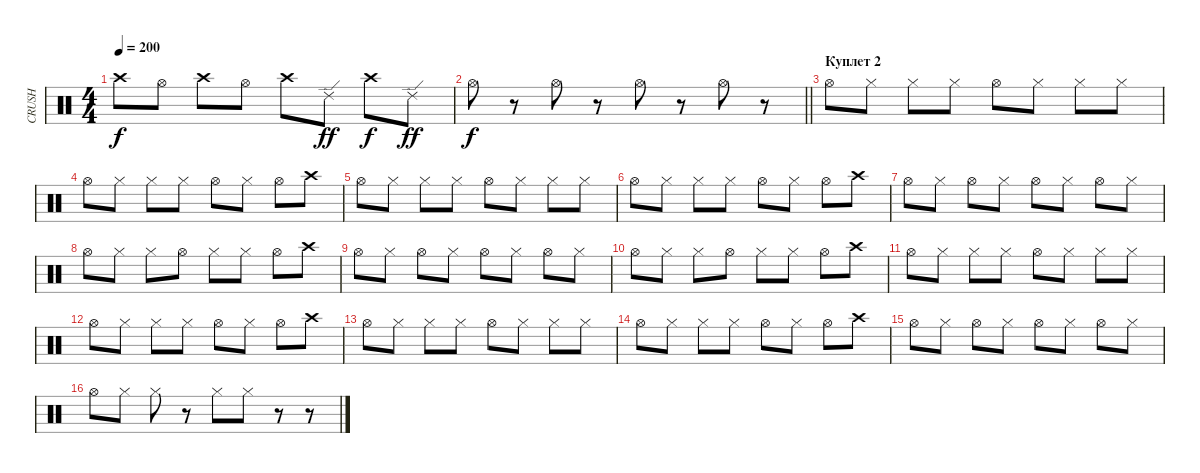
\track ("CRUSH" "CRUSH") {instrument percussion}
\staff {score}
\articulation defaults
\ts (4 4)
\tempo 200
\clef neutral
\ks c "Crash high (hit)".8{dy f} "Hi-Hat (open)".8 "Crash high (hit)".8 "Hi-Hat (open)".8 "Crash high (hit)".8 "Ride (edge) 2".8{dy ff} "Crash high (hit)".8{dy f} "Ride (edge) 2".8{dy ff}
|
\barLineRight lightlight "Hi-Hat (open)".8{dy f}
r.8 "Hi-Hat (open)".8 r.8 "Hi-Hat (open)".8 r.8 "Hi-Hat (open)".8 r.8 |
\section ("" "Куплет 2")
"Hi-Hat (open)".8 "Hi-Hat (closed)".8 "Hi-Hat (closed)".8 "Hi-Hat (closed)".8 "Hi-Hat (open)".8 "Hi-Hat (closed)".8 "Hi-Hat (closed)".8 "Hi-Hat (closed)".8 |
"Hi-Hat (open)".8 "Hi-Hat (closed)".8 "Hi-Hat (closed)".8 "Hi-Hat (closed)".8 "Hi-Hat (open)".8 "Hi-Hat (closed)".8 "Hi-Hat (open)".8 "Crash high (hit)".8 |
"Hi-Hat (open)".8 "Hi-Hat (closed)".8 "Hi-Hat (closed)".8 "Hi-Hat (closed)".8 "Hi-Hat (open)".8 "Hi-Hat (closed)".8 "Hi-Hat (closed)".8 "Hi-Hat (closed)".8 |
"Hi-Hat (open)".8 "Hi-Hat (closed)".8 "Hi-Hat (closed)".8 "Hi-Hat (closed)".8 "Hi-Hat (open)".8 "Hi-Hat (closed)".8 "Hi-Hat (open)".8 "Crash high (hit)".8 |
"Hi-Hat (open)".8 "Hi-Hat (closed)".8 "Hi-Hat (open)".8 "Hi-Hat (closed)".8 "Hi-Hat (open)".8 "Hi-Hat (closed)".8 "Hi-Hat (open)".8 "Hi-Hat (closed)".8 |
"Hi-Hat (open)".8 "Hi-Hat (closed)".8 "Hi-Hat (closed)".8 "Hi-Hat (open)".8 "Hi-Hat (closed)".8 "Hi-Hat (closed)".8 "Hi-Hat (open)".8 "Crash high (hit)".8 |
"Hi-Hat (open)".8 "Hi-Hat (closed)".8 "Hi-Hat (open)".8 "Hi-Hat (closed)".8 "Hi-Hat (open)".8 "Hi-Hat (closed)".8 "Hi-Hat (open)".8 "Hi-Hat (closed)".8 |
"Hi-Hat (open)".8 "Hi-Hat (closed)".8 "Hi-Hat (closed)".8 "Hi-Hat (open)".8 "Hi-Hat (closed)".8 "Hi-Hat (closed)".8 "Hi-Hat (open)".8 "Crash high (hit)".8 |
"Hi-Hat (open)".8 "Hi-Hat (closed)".8 "Hi-Hat (closed)".8 "Hi-Hat (closed)".8 "Hi-Hat (open)".8 "Hi-Hat (closed)".8 "Hi-Hat (closed)".8 "Hi-Hat (closed)".8 |
"Hi-Hat (open)".8 "Hi-Hat (closed)".8 "Hi-Hat (closed)".8 "Hi-Hat (closed)".8 "Hi-Hat (open)".8 "Hi-Hat (closed)".8 "Hi-Hat (open)".8 "Crash high (hit)".8 |
"Hi-Hat (open)".8 "Hi-Hat (closed)".8 "Hi-Hat (closed)".8 "Hi-Hat (closed)".8 "Hi-Hat (open)".8 "Hi-Hat (closed)".8 "Hi-Hat (closed)".8 "Hi-Hat (closed)".8 |
"Hi-Hat (open)".8 "Hi-Hat (closed)".8 "Hi-Hat (closed)".8 "Hi-Hat (closed)".8 "Hi-Hat (open)".8 "Hi-Hat (closed)".8 "Hi-Hat (open)".8 "Crash high (hit)".8 |
"Hi-Hat (open)".8 "Hi-Hat (closed)".8 "Hi-Hat (open)".8 "Hi-Hat (closed)".8 "Hi-Hat (open)".8 "Hi-Hat (closed)".8 "Hi-Hat (open)".8 "Hi-Hat (closed)".8 |
"Hi-Hat (open)".8 "Hi-Hat (closed)".8 "Hi-Hat (closed)".8 r.8 "Hi-Hat (closed)".8 "Hi-Hat (closed)".8 r.8 r.8
